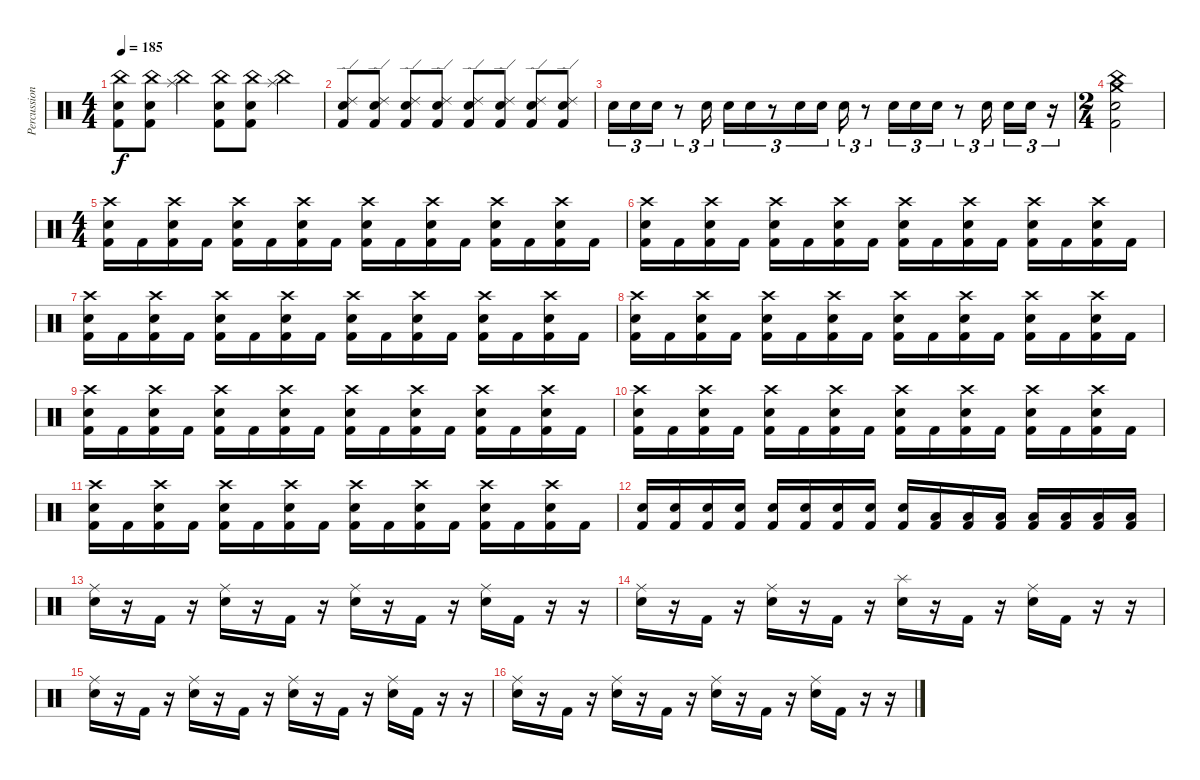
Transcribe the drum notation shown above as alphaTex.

\track ("Percussion" "Percussion") {instrument percussion}
\staff {score}
\articulation defaults
\ts (4 4)
\tempo 185
\clef neutral
\ks c
("China (hit)" "Kick (hit) 2" "Electric Snare (hit)").8{dy f} ("China (hit)" "Kick (hit) 2" "Electric Snare (hit)").8 ("China (hit)" "Splash (hit)").4 ("China (hit)" "Kick (hit) 2" "Electric Snare (hit)").8 ("China (hit)" "Kick (hit) 2" "Electric Snare (hit)").8 ("China (hit)" "Splash (hit)").4 |
("Ride (edge) 2" "Electric Snare (hit)" "Kick (hit) 2").8 ("Ride (edge) 2" "Electric Snare (hit)" "Kick (hit) 2").8 ("Ride (edge) 2" "Electric Snare (hit)" "Kick (hit) 2").8 ("Ride (edge) 2" "Snare (hit)" "Kick (hit) 2").8 ("Ride (edge) 2" "Electric Snare (hit)" "Kick (hit) 2").8 ("Ride (edge) 2" "Electric Snare (hit)" "Kick (hit) 2").8 ("Ride (edge) 2" "Electric Snare (hit)" "Kick (hit) 2").8 ("Ride (edge) 2" "Snare (hit)" "Kick (hit) 2").8 |
"Electric Snare (hit)".16{tu (3 2)} "Electric Snare (hit)".16{tu (3 2)} "Electric Snare (hit)".16{tu (3 2)} r.8{tu (3 2)} "Electric Snare (hit)".16{tu (3 2)} "Electric Snare (hit)".16{tu (3 2)} "Electric Snare (hit)".16{tu (3 2)} r.8{tu (3 2)} "Electric Snare (hit)".16{tu (3 2)} "Electric Snare (hit)".16{tu (3 2)} "Electric Snare (hit)".16{tu (3 2)} r.8{tu (3 2)} "Electric Snare (hit)".16{tu (3 2)} "Electric Snare (hit)".16{tu (3 2)} "Electric Snare (hit)".16{tu (3 2)} r.8{tu (3 2)} "Electric Snare (hit)".16{tu (3 2)} "Electric Snare (hit)".16{tu (3 2)} "Electric Snare (hit)".16{tu (3 2)} r.16{tu (3 2)} |
\ts (2 4)
("Crash medium (hit)" "China (hit)" "Electric Snare (hit)" "Kick (hit) 2").2 |
\ts (4 4)
("Crash high (hit)" "Electric Snare (hit)" "Kick (hit) 2").16 "Kick (hit) 2".16 ("Crash high (hit)" "Electric Snare (hit)" "Kick (hit) 2").16 "Kick (hit) 2".16 ("Crash high (hit)" "Electric Snare (hit)" "Kick (hit) 2").16 "Kick (hit) 2".16 ("Crash high (hit)" "Electric Snare (hit)" "Kick (hit) 2").16 "Kick (hit) 2".16 ("Crash high (hit)" "Electric Snare (hit)" "Kick (hit) 2").16 "Kick (hit) 2".16 ("Crash high (hit)" "Electric Snare (hit)" "Kick (hit) 2").16 "Kick (hit) 2".16 ("Crash high (hit)" "Electric Snare (hit)" "Kick (hit) 2").16 "Kick (hit) 2".16 ("Crash high (hit)" "Electric Snare (hit)" "Kick (hit) 2").16 "Kick (hit) 2".16 |
("Crash high (hit)" "Electric Snare (hit)" "Kick (hit) 2").16 "Kick (hit) 2".16 ("Crash high (hit)" "Electric Snare (hit)" "Kick (hit) 2").16 "Kick (hit) 2".16 ("Crash high (hit)" "Electric Snare (hit)" "Kick (hit) 2").16 "Kick (hit) 2".16 ("Crash high (hit)" "Electric Snare (hit)" "Kick (hit) 2").16 "Kick (hit) 2".16 ("Crash high (hit)" "Electric Snare (hit)" "Kick (hit) 2").16 "Kick (hit) 2".16 ("Crash high (hit)" "Electric Snare (hit)" "Kick (hit) 2").16 "Kick (hit) 2".16 ("Crash high (hit)" "Electric Snare (hit)" "Kick (hit) 2").16 "Kick (hit) 2".16 ("Crash high (hit)" "Electric Snare (hit)" "Kick (hit) 2").16 "Kick (hit) 2".16 |
("Crash high (hit)" "Electric Snare (hit)" "Kick (hit) 2").16 "Kick (hit) 2".16 ("Crash high (hit)" "Electric Snare (hit)" "Kick (hit) 2").16 "Kick (hit) 2".16 ("Crash high (hit)" "Electric Snare (hit)" "Kick (hit) 2").16 "Kick (hit) 2".16 ("Crash high (hit)" "Electric Snare (hit)" "Kick (hit) 2").16 "Kick (hit) 2".16 ("Crash high (hit)" "Electric Snare (hit)" "Kick (hit) 2").16 "Kick (hit) 2".16 ("Crash high (hit)" "Electric Snare (hit)" "Kick (hit) 2").16 "Kick (hit) 2".16 ("Crash high (hit)" "Electric Snare (hit)" "Kick (hit) 2").16 "Kick (hit) 2".16 ("Crash high (hit)" "Electric Snare (hit)" "Kick (hit) 2").16 "Kick (hit) 2".16 |
("Crash high (hit)" "Electric Snare (hit)" "Kick (hit) 2").16 "Kick (hit) 2".16 ("Crash high (hit)" "Electric Snare (hit)" "Kick (hit) 2").16 "Kick (hit) 2".16 ("Crash high (hit)" "Electric Snare (hit)" "Kick (hit) 2").16 "Kick (hit) 2".16 ("Crash high (hit)" "Electric Snare (hit)" "Kick (hit) 2").16 "Kick (hit) 2".16 ("Crash high (hit)" "Electric Snare (hit)" "Kick (hit) 2").16 "Kick (hit) 2".16 ("Crash high (hit)" "Electric Snare (hit)" "Kick (hit) 2").16 "Kick (hit) 2".16 ("Crash high (hit)" "Electric Snare (hit)" "Kick (hit) 2").16 "Kick (hit) 2".16 ("Crash high (hit)" "Electric Snare (hit)" "Kick (hit) 2").16 "Kick (hit) 2".16 |
("Crash high (hit)" "Electric Snare (hit)" "Kick (hit) 2").16 "Kick (hit) 2".16 ("Crash high (hit)" "Electric Snare (hit)" "Kick (hit) 2").16 "Kick (hit) 2".16 ("Crash high (hit)" "Electric Snare (hit)" "Kick (hit) 2").16 "Kick (hit) 2".16 ("Crash high (hit)" "Electric Snare (hit)" "Kick (hit) 2").16 "Kick (hit) 2".16 ("Crash high (hit)" "Electric Snare (hit)" "Kick (hit) 2").16 "Kick (hit) 2".16 ("Crash high (hit)" "Electric Snare (hit)" "Kick (hit) 2").16 "Kick (hit) 2".16 ("Crash high (hit)" "Electric Snare (hit)" "Kick (hit) 2").16 "Kick (hit) 2".16 ("Crash high (hit)" "Electric Snare (hit)" "Kick (hit) 2").16 "Kick (hit) 2".16 |
("Crash high (hit)" "Electric Snare (hit)" "Kick (hit) 2").16 "Kick (hit) 2".16 ("Crash high (hit)" "Electric Snare (hit)" "Kick (hit) 2").16 "Kick (hit) 2".16 ("Crash high (hit)" "Electric Snare (hit)" "Kick (hit) 2").16 "Kick (hit) 2".16 ("Crash high (hit)" "Electric Snare (hit)" "Kick (hit) 2").16 "Kick (hit) 2".16 ("Crash high (hit)" "Electric Snare (hit)" "Kick (hit) 2").16 "Kick (hit) 2".16 ("Crash high (hit)" "Electric Snare (hit)" "Kick (hit) 2").16 "Kick (hit) 2".16 ("Crash high (hit)" "Electric Snare (hit)" "Kick (hit) 2").16 "Kick (hit) 2".16 ("Crash high (hit)" "Electric Snare (hit)" "Kick (hit) 2").16 "Kick (hit) 2".16 |
("Crash high (hit)" "Electric Snare (hit)" "Kick (hit) 2").16 "Kick (hit) 2".16 ("Crash high (hit)" "Electric Snare (hit)" "Kick (hit) 2").16 "Kick (hit) 2".16 ("Crash high (hit)" "Electric Snare (hit)" "Kick (hit) 2").16 "Kick (hit) 2".16 ("Crash high (hit)" "Electric Snare (hit)" "Kick (hit) 2").16 "Kick (hit) 2".16 ("Crash high (hit)" "Electric Snare (hit)" "Kick (hit) 2").16 "Kick (hit) 2".16 ("Crash high (hit)" "Electric Snare (hit)" "Kick (hit) 2").16 "Kick (hit) 2".16 ("Crash high (hit)" "Electric Snare (hit)" "Kick (hit) 2").16 "Kick (hit) 2".16 ("Crash high (hit)" "Electric Snare (hit)" "Kick (hit) 2").16 "Kick (hit) 2".16 |
("Electric Snare (hit)" "Kick (hit) 2").16 ("Electric Snare (hit)" "Kick (hit) 2").16 ("Electric Snare (hit)" "Kick (hit) 2").16 ("Electric Snare (hit)" "Kick (hit) 2").16 ("Electric Snare (hit)" "Kick (hit) 2").16 ("Electric Snare (hit)" "Kick (hit) 2").16 ("Electric Snare (hit)" "Kick (hit) 2").16 ("Electric Snare (hit)" "Kick (hit) 2").16 ("Electric Snare (hit)" "Kick (hit) 2").16 ("Low Floor Tom (hit)" "Kick (hit) 2").16 ("Low Floor Tom (hit)" "Kick (hit) 2").16 ("Low Floor Tom (hit)" "Kick (hit) 2").16 ("Low Floor Tom (hit)" "Kick (hit) 2").16 ("Low Floor Tom (hit)" "Kick (hit) 2").16 ("Low Floor Tom (hit)" "Kick (hit) 2").16 ("Low Floor Tom (hit)" "Kick (hit) 2").16 |
("Snare (hit) 2" "Ride (middle)").16 r.16 "Kick (hit) 2".16 r.16 ("Snare (hit) 2" "Ride (middle)").16 r.16 "Kick (hit) 2".16 r.16 ("Snare (hit) 2" "Ride (middle)").16 r.16 "Kick (hit) 2".16 r.16 ("Snare (hit) 2" "Ride (middle)").16 "Kick (hit) 2".16 r.16 r.16 |
("Snare (hit) 2" "Ride (middle)").16 r.16 "Kick (hit) 2".16 r.16 ("Snare (hit) 2" "Ride (middle)").16 r.16 "Kick (hit) 2".16 r.16 ("Snare (hit) 2" "Splash (hit)").16 r.16 "Kick (hit) 2".16 r.16 ("Snare (hit) 2" "Ride (middle)").16 "Kick (hit) 2".16 r.16 r.16 |
("Snare (hit) 2" "Ride (middle)").16 r.16 "Kick (hit) 2".16 r.16 ("Snare (hit) 2" "Ride (middle)").16 r.16 "Kick (hit) 2".16 r.16 ("Snare (hit) 2" "Ride (middle)").16 r.16 "Kick (hit) 2".16 r.16 ("Snare (hit) 2" "Ride (middle)").16 "Kick (hit) 2".16 r.16 r.16 |
("Snare (hit) 2" "Ride (middle)").16 r.16 "Kick (hit) 2".16 r.16 ("Snare (hit) 2" "Ride (middle)").16 r.16 "Kick (hit) 2".16 r.16 ("Snare (hit) 2" "Ride (middle)").16 r.16 "Kick (hit) 2".16 r.16 ("Snare (hit) 2" "Ride (middle)").16 "Kick (hit) 2".16 r.16 r.16
